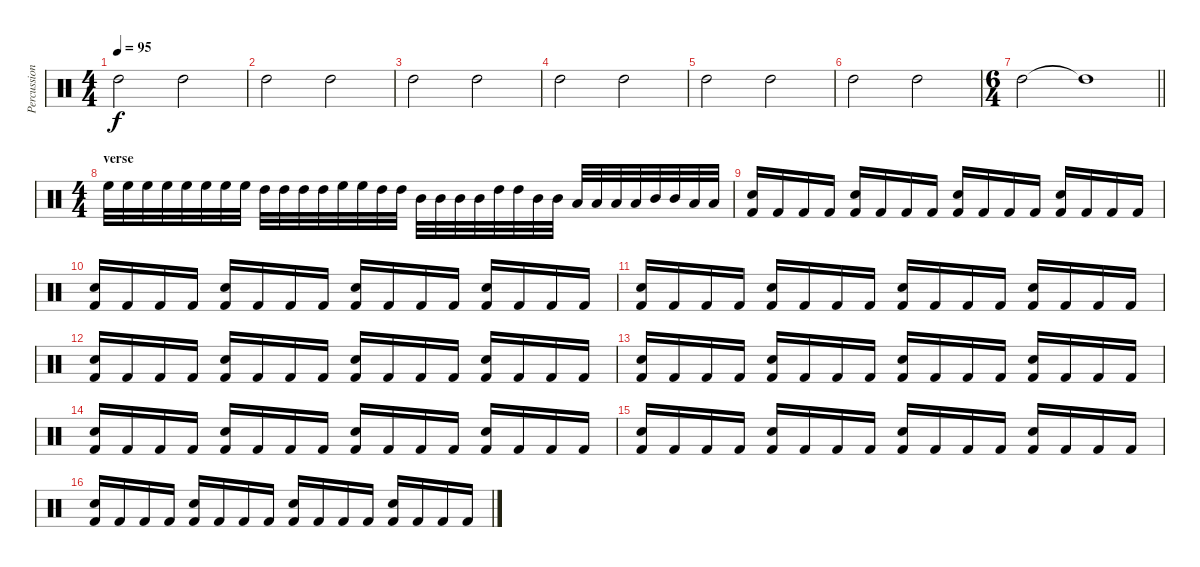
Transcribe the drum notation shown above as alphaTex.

\track ("Percussioni" "Percussion") {instrument percussion}
\staff {score}
\articulation defaults
\ts (4 4)
\tempo 95
\clef neutral
\ks c "High Tom (hit)".2{dy f} "High Tom (hit)".2
|
"High Tom (hit)".2 "High Tom (hit)".2 |
"High Tom (hit)".2 "High Tom (hit)".2 |
"High Tom (hit)".2 "High Tom (hit)".2 |
"High Tom (hit)".2 "High Tom (hit)".2 |
"High Tom (hit)".2 "High Tom (hit)".2 |
\ts (6 4)
\barLineRight lightlight "High Tom (hit)".2 "High Tom (hit)"{t}.1
|
\ts (4 4)
\section ("" "verse")
"High Floor Tom (hit)".32 "High Floor Tom (hit)".32 "High Floor Tom (hit)".32 "High Floor Tom (hit)".32 "High Floor Tom (hit)".32 "High Floor Tom (hit)".32 "High Floor Tom (hit)".32 "High Floor Tom (hit)".32 "High Tom (hit)".32 "High Tom (hit)".32 "High Tom (hit)".32 "High Tom (hit)".32 "High Floor Tom (hit)".32 "High Floor Tom (hit)".32 "High Tom (hit)".32 "High Tom (hit)".32 "Mid Tom (hit)".32 "Mid Tom (hit)".32 "Mid Tom (hit)".32 "Mid Tom (hit)".32 "High Tom (hit)".32 "High Tom (hit)".32 "Mid Tom (hit)".32 "Mid Tom (hit)".32 "Low Tom (hit)".32 "Low Tom (hit)".32 "Low Tom (hit)".32 "Low Tom (hit)".32 "Mid Tom (hit)".32 "Mid Tom (hit)".32 "Low Tom (hit)".32 "Low Tom (hit)".32 |
("Snare (hit) 2" "Kick (hit) 2").16 "Kick (hit) 2".16 "Kick (hit) 2".16 "Kick (hit) 2".16 ("Snare (hit) 2" "Kick (hit) 2").16 "Kick (hit) 2".16 "Kick (hit) 2".16 "Kick (hit) 2".16 ("Snare (hit) 2" "Kick (hit) 2").16 "Kick (hit) 2".16 "Kick (hit) 2".16 "Kick (hit) 2".16 ("Snare (hit) 2" "Kick (hit) 2").16 "Kick (hit) 2".16 "Kick (hit) 2".16 "Kick (hit) 2".16 |
("Snare (hit) 2" "Kick (hit) 2").16 "Kick (hit) 2".16 "Kick (hit) 2".16 "Kick (hit) 2".16 ("Snare (hit) 2" "Kick (hit) 2").16 "Kick (hit) 2".16 "Kick (hit) 2".16 "Kick (hit) 2".16 ("Snare (hit) 2" "Kick (hit) 2").16 "Kick (hit) 2".16 "Kick (hit) 2".16 "Kick (hit) 2".16 ("Snare (hit) 2" "Kick (hit) 2").16 "Kick (hit) 2".16 "Kick (hit) 2".16 "Kick (hit) 2".16 |
("Snare (hit) 2" "Kick (hit) 2").16 "Kick (hit) 2".16 "Kick (hit) 2".16 "Kick (hit) 2".16 ("Snare (hit) 2" "Kick (hit) 2").16 "Kick (hit) 2".16 "Kick (hit) 2".16 "Kick (hit) 2".16 ("Snare (hit) 2" "Kick (hit) 2").16 "Kick (hit) 2".16 "Kick (hit) 2".16 "Kick (hit) 2".16 ("Snare (hit) 2" "Kick (hit) 2").16 "Kick (hit) 2".16 "Kick (hit) 2".16 "Kick (hit) 2".16 |
("Snare (hit) 2" "Kick (hit) 2").16 "Kick (hit) 2".16 "Kick (hit) 2".16 "Kick (hit) 2".16 ("Snare (hit) 2" "Kick (hit) 2").16 "Kick (hit) 2".16 "Kick (hit) 2".16 "Kick (hit) 2".16 ("Snare (hit) 2" "Kick (hit) 2").16 "Kick (hit) 2".16 "Kick (hit) 2".16 "Kick (hit) 2".16 ("Snare (hit) 2" "Kick (hit) 2").16 "Kick (hit) 2".16 "Kick (hit) 2".16 "Kick (hit) 2".16 |
("Snare (hit) 2" "Kick (hit) 2").16 "Kick (hit) 2".16 "Kick (hit) 2".16 "Kick (hit) 2".16 ("Snare (hit) 2" "Kick (hit) 2").16 "Kick (hit) 2".16 "Kick (hit) 2".16 "Kick (hit) 2".16 ("Snare (hit) 2" "Kick (hit) 2").16 "Kick (hit) 2".16 "Kick (hit) 2".16 "Kick (hit) 2".16 ("Snare (hit) 2" "Kick (hit) 2").16 "Kick (hit) 2".16 "Kick (hit) 2".16 "Kick (hit) 2".16 |
("Snare (hit) 2" "Kick (hit) 2").16 "Kick (hit) 2".16 "Kick (hit) 2".16 "Kick (hit) 2".16 ("Snare (hit) 2" "Kick (hit) 2").16 "Kick (hit) 2".16 "Kick (hit) 2".16 "Kick (hit) 2".16 ("Snare (hit) 2" "Kick (hit) 2").16 "Kick (hit) 2".16 "Kick (hit) 2".16 "Kick (hit) 2".16 ("Snare (hit) 2" "Kick (hit) 2").16 "Kick (hit) 2".16 "Kick (hit) 2".16 "Kick (hit) 2".16 |
("Snare (hit) 2" "Kick (hit) 2").16 "Kick (hit) 2".16 "Kick (hit) 2".16 "Kick (hit) 2".16 ("Snare (hit) 2" "Kick (hit) 2").16 "Kick (hit) 2".16 "Kick (hit) 2".16 "Kick (hit) 2".16 ("Snare (hit) 2" "Kick (hit) 2").16 "Kick (hit) 2".16 "Kick (hit) 2".16 "Kick (hit) 2".16 ("Snare (hit) 2" "Kick (hit) 2").16 "Kick (hit) 2".16 "Kick (hit) 2".16 "Kick (hit) 2".16 |
("Snare (hit) 2" "Kick (hit) 2").16 "Kick (hit) 2".16 "Kick (hit) 2".16 "Kick (hit) 2".16 ("Snare (hit) 2" "Kick (hit) 2").16 "Kick (hit) 2".16 "Kick (hit) 2".16 "Kick (hit) 2".16 ("Snare (hit) 2" "Kick (hit) 2").16 "Kick (hit) 2".16 "Kick (hit) 2".16 "Kick (hit) 2".16 ("Snare (hit) 2" "Kick (hit) 2").16 "Kick (hit) 2".16 "Kick (hit) 2".16 "Kick (hit) 2".16
